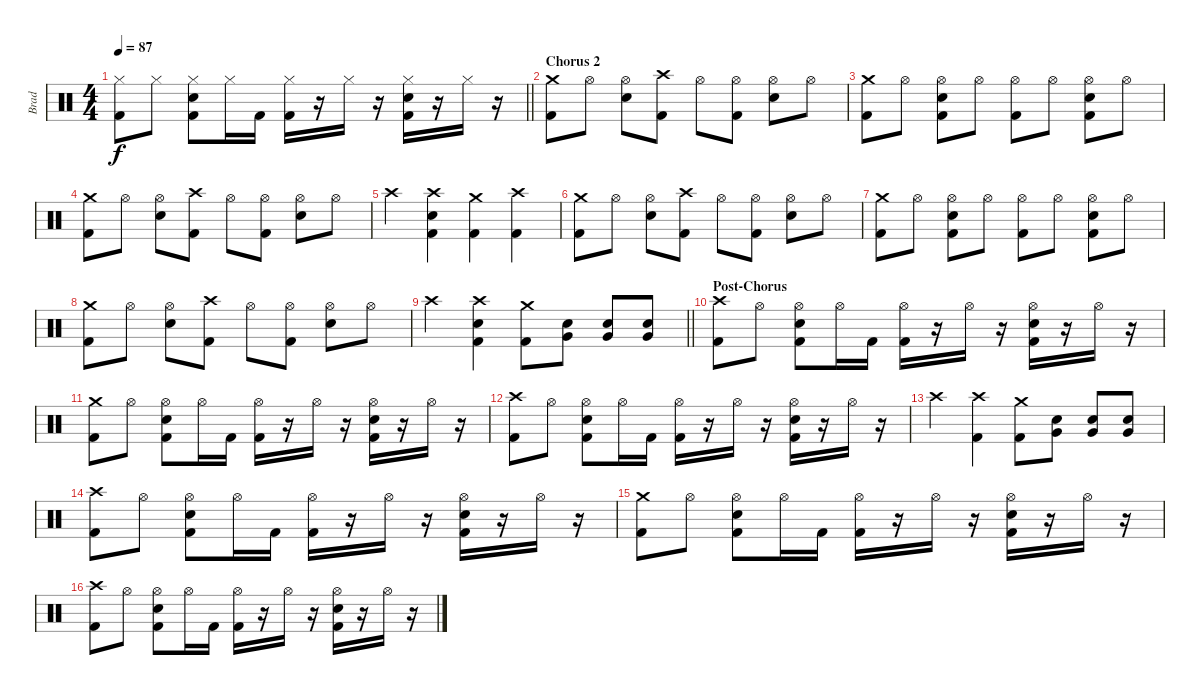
\track ("Brad" "Brad") {instrument percussion}
\staff {score}
\articulation defaults
\ts (4 4)
\tempo 87
\clef neutral
\barLineRight lightlight
\ks c
("Hi-Hat (closed)" "Kick (hit) 2").8{dy f} "Hi-Hat (closed)".8 ("Hi-Hat (closed)" "Electric Snare (hit)" "Kick (hit) 2").8 "Hi-Hat (closed)".16 "Kick (hit) 2".16 ("Hi-Hat (closed)" "Kick (hit) 2").16 r.16 "Hi-Hat (closed)".16 r.16 ("Hi-Hat (closed)" "Electric Snare (hit)" "Kick (hit) 2").16 r.16 "Hi-Hat (closed)".16 r.16 |
\section ("" "Chorus 2")
("Crash medium (hit)" "Kick (hit) 2").8 "Hi-Hat (open)".8 ("Hi-Hat (open)" "Electric Snare (hit)").8 ("Crash high (hit)" "Kick (hit) 2").8 "Hi-Hat (open)".8 ("Hi-Hat (open)" "Kick (hit) 2").8 ("Hi-Hat (open)" "Electric Snare (hit)").8 "Hi-Hat (open)".8 |
("Crash medium (hit)" "Kick (hit) 2").8 "Hi-Hat (open)".8 ("Hi-Hat (open)" "Electric Snare (hit)" "Kick (hit) 2").8 "Hi-Hat (open)".8 ("Hi-Hat (open)" "Kick (hit) 2").8 "Hi-Hat (open)".8 ("Hi-Hat (open)" "Electric Snare (hit)" "Kick (hit) 2").8 "Hi-Hat (open)".8 |
("Crash medium (hit)" "Kick (hit) 2").8 "Hi-Hat (open)".8 ("Hi-Hat (open)" "Electric Snare (hit)").8 ("Crash high (hit)" "Kick (hit) 2").8 "Hi-Hat (open)".8 ("Hi-Hat (open)" "Kick (hit) 2").8 ("Hi-Hat (open)" "Electric Snare (hit)").8 "Hi-Hat (open)".8 |
"Crash high (hit)".4 ("Crash high (hit)" "Electric Snare (hit)" "Kick (hit) 2").4 ("Crash medium (hit)" "Kick (hit) 2").4 ("Crash high (hit)" "Kick (hit) 2").4 |
("Crash medium (hit)" "Kick (hit) 2").8 "Hi-Hat (open)".8 ("Hi-Hat (open)" "Electric Snare (hit)").8 ("Crash high (hit)" "Kick (hit) 2").8 "Hi-Hat (open)".8 ("Hi-Hat (open)" "Kick (hit) 2").8 ("Hi-Hat (open)" "Electric Snare (hit)").8 "Hi-Hat (open)".8 |
("Crash medium (hit)" "Kick (hit) 2").8 "Hi-Hat (open)".8 ("Hi-Hat (open)" "Electric Snare (hit)" "Kick (hit) 2").8 "Hi-Hat (open)".8 ("Hi-Hat (open)" "Kick (hit) 2").8 "Hi-Hat (open)".8 ("Hi-Hat (open)" "Electric Snare (hit)" "Kick (hit) 2").8 "Hi-Hat (open)".8 |
("Crash medium (hit)" "Kick (hit) 2").8 "Hi-Hat (open)".8 ("Hi-Hat (open)" "Electric Snare (hit)").8 ("Crash high (hit)" "Kick (hit) 2").8 "Hi-Hat (open)".8 ("Hi-Hat (open)" "Kick (hit) 2").8 ("Hi-Hat (open)" "Electric Snare (hit)").8 "Hi-Hat (open)".8 |
\barLineRight lightlight "Crash high (hit)".4
("Crash high (hit)" "Electric Snare (hit)" "Kick (hit) 2").4 ("Crash medium (hit)" "Kick (hit) 2").8 ("Very Low Tom (hit)" "Electric Snare (hit)").8 ("Very Low Tom (hit)" "Electric Snare (hit)").8 ("Very Low Tom (hit)" "Electric Snare (hit)").8 |
\section ("" "Post-Chorus")
("Crash high (hit)" "Kick (hit) 2").8 "Hi-Hat (open)".8 ("Hi-Hat (open)" "Electric Snare (hit)" "Kick (hit) 2").8 "Hi-Hat (open)".16 "Kick (hit) 2".16 ("Hi-Hat (open)" "Kick (hit) 2").16 r.16 "Hi-Hat (open)".16 r.16 ("Hi-Hat (open)" "Electric Snare (hit)" "Kick (hit) 2").16 r.16 "Hi-Hat (open)".16 r.16 |
("Crash medium (hit)" "Kick (hit) 2").8 "Hi-Hat (open)".8 ("Hi-Hat (open)" "Electric Snare (hit)" "Kick (hit) 2").8 "Hi-Hat (open)".16 "Kick (hit) 2".16 ("Hi-Hat (open)" "Kick (hit) 2").16 r.16 "Hi-Hat (open)".16 r.16 ("Hi-Hat (open)" "Electric Snare (hit)" "Kick (hit) 2").16 r.16 "Hi-Hat (open)".16 r.16 |
("Crash high (hit)" "Kick (hit) 2").8 "Hi-Hat (open)".8 ("Hi-Hat (open)" "Electric Snare (hit)" "Kick (hit) 2").8 "Hi-Hat (open)".16 "Kick (hit) 2".16 ("Hi-Hat (open)" "Kick (hit) 2").16 r.16 "Hi-Hat (open)".16 r.16 ("Hi-Hat (open)" "Electric Snare (hit)" "Kick (hit) 2").16 r.16 "Hi-Hat (open)".16 r.16 |
"Crash high (hit)".4 ("Crash high (hit)" "Kick (hit) 2").4 ("Crash medium (hit)" "Kick (hit) 2").8 ("Very Low Tom (hit)" "Electric Snare (hit)").8 ("Very Low Tom (hit)" "Electric Snare (hit)").8 ("Very Low Tom (hit)" "Electric Snare (hit)").8 |
("Crash high (hit)" "Kick (hit) 2").8 "Hi-Hat (open)".8 ("Hi-Hat (open)" "Electric Snare (hit)" "Kick (hit) 2").8 "Hi-Hat (open)".16 "Kick (hit) 2".16 ("Hi-Hat (open)" "Kick (hit) 2").16 r.16 "Hi-Hat (open)".16 r.16 ("Hi-Hat (open)" "Electric Snare (hit)" "Kick (hit) 2").16 r.16 "Hi-Hat (open)".16 r.16 |
("Crash medium (hit)" "Kick (hit) 2").8 "Hi-Hat (open)".8 ("Hi-Hat (open)" "Electric Snare (hit)" "Kick (hit) 2").8 "Hi-Hat (open)".16 "Kick (hit) 2".16 ("Hi-Hat (open)" "Kick (hit) 2").16 r.16 "Hi-Hat (open)".16 r.16 ("Hi-Hat (open)" "Electric Snare (hit)" "Kick (hit) 2").16 r.16 "Hi-Hat (open)".16 r.16 |
("Crash high (hit)" "Kick (hit) 2").8 "Hi-Hat (open)".8 ("Hi-Hat (open)" "Electric Snare (hit)" "Kick (hit) 2").8 "Hi-Hat (open)".16 "Kick (hit) 2".16 ("Hi-Hat (open)" "Kick (hit) 2").16 r.16 "Hi-Hat (open)".16 r.16 ("Hi-Hat (open)" "Electric Snare (hit)" "Kick (hit) 2").16 r.16 "Hi-Hat (open)".16 r.16
